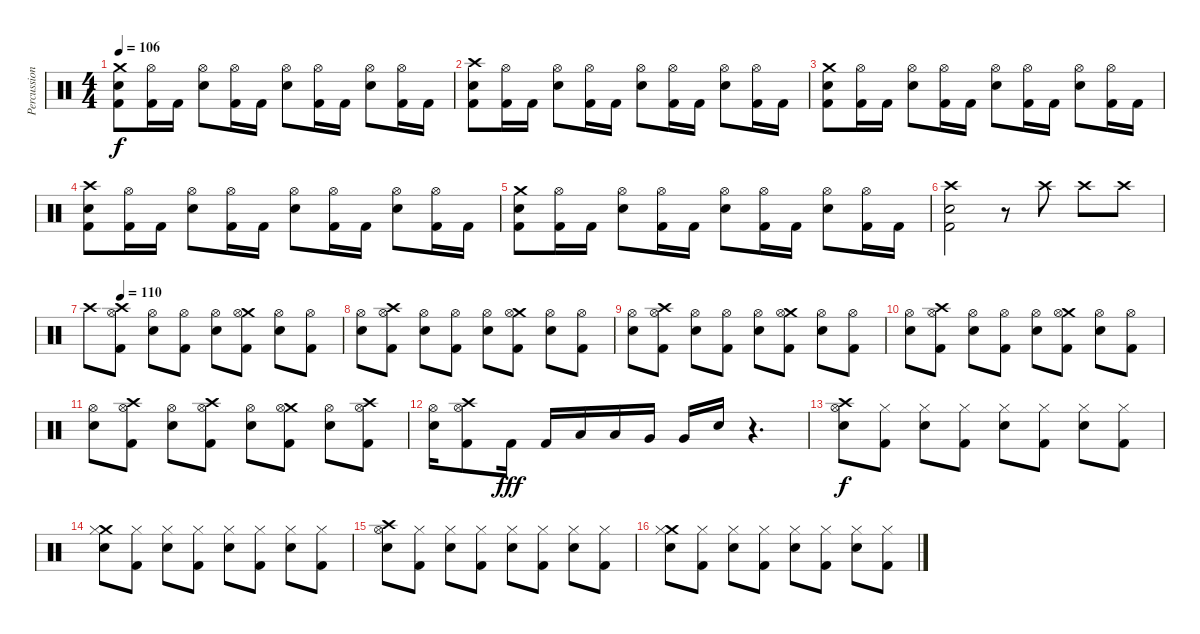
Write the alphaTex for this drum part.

\track ("Percussion" "Percussion") {instrument percussion}
\staff {score}
\articulation defaults
\ts (4 4)
\tempo 106
\clef neutral
\ks c
("Crash medium (hit)" "Electric Snare (hit)" "Kick (hit) 2").8{dy f} ("Hi-Hat (open)" "Kick (hit) 2").16 "Kick (hit) 2".16 ("Hi-Hat (open)" "Electric Snare (hit)").8 ("Hi-Hat (open)" "Kick (hit) 2").16 "Kick (hit) 2".16 ("Hi-Hat (open)" "Electric Snare (hit)").8 ("Hi-Hat (open)" "Kick (hit) 2").16 "Kick (hit) 2".16 ("Hi-Hat (open)" "Electric Snare (hit)").8 ("Hi-Hat (open)" "Kick (hit) 2").16 "Kick (hit) 2".16 |
("Crash high (hit)" "Electric Snare (hit)" "Kick (hit) 2").8 ("Hi-Hat (open)" "Kick (hit) 2").16 "Kick (hit) 2".16 ("Hi-Hat (open)" "Electric Snare (hit)").8 ("Hi-Hat (open)" "Kick (hit) 2").16 "Kick (hit) 2".16 ("Hi-Hat (open)" "Electric Snare (hit)").8 ("Hi-Hat (open)" "Kick (hit) 2").16 "Kick (hit) 2".16 ("Hi-Hat (open)" "Electric Snare (hit)").8 ("Hi-Hat (open)" "Kick (hit) 2").16 "Kick (hit) 2".16 |
("Crash medium (hit)" "Electric Snare (hit)" "Kick (hit) 2").8 ("Hi-Hat (open)" "Kick (hit) 2").16 "Kick (hit) 2".16 ("Hi-Hat (open)" "Electric Snare (hit)").8 ("Hi-Hat (open)" "Kick (hit) 2").16 "Kick (hit) 2".16 ("Hi-Hat (open)" "Electric Snare (hit)").8 ("Hi-Hat (open)" "Kick (hit) 2").16 "Kick (hit) 2".16 ("Hi-Hat (open)" "Electric Snare (hit)").8 ("Hi-Hat (open)" "Kick (hit) 2").16 "Kick (hit) 2".16 |
("Crash high (hit)" "Electric Snare (hit)" "Kick (hit) 2").8 ("Hi-Hat (open)" "Kick (hit) 2").16 "Kick (hit) 2".16 ("Hi-Hat (open)" "Electric Snare (hit)").8 ("Hi-Hat (open)" "Kick (hit) 2").16 "Kick (hit) 2".16 ("Hi-Hat (open)" "Electric Snare (hit)").8 ("Hi-Hat (open)" "Kick (hit) 2").16 "Kick (hit) 2".16 ("Hi-Hat (open)" "Electric Snare (hit)").8 ("Hi-Hat (open)" "Kick (hit) 2").16 "Kick (hit) 2".16 |
("Crash medium (hit)" "Electric Snare (hit)" "Kick (hit) 2").8 ("Hi-Hat (open)" "Kick (hit) 2").16 "Kick (hit) 2".16 ("Hi-Hat (open)" "Electric Snare (hit)").8 ("Hi-Hat (open)" "Kick (hit) 2").16 "Kick (hit) 2".16 ("Hi-Hat (open)" "Electric Snare (hit)").8 ("Hi-Hat (open)" "Kick (hit) 2").16 "Kick (hit) 2".16 ("Hi-Hat (open)" "Electric Snare (hit)").8 ("Hi-Hat (open)" "Kick (hit) 2").16 "Kick (hit) 2".16 |
("Crash high (hit)" "Electric Snare (hit)" "Kick (hit) 2").2 r.8 "Crash high (hit)".8 "Crash high (hit)".8 "Crash high (hit)".8 |
\tempo (110 0.125)
"Crash high (hit)".8 ("Crash high (hit)" "Hi-Hat (open)" "Kick (hit) 2").8 ("Hi-Hat (open)" "Electric Snare (hit)").8 ("Hi-Hat (open)" "Kick (hit) 2").8 ("Hi-Hat (open)" "Electric Snare (hit)").8 ("Crash medium (hit)" "Hi-Hat (open)" "Kick (hit) 2").8 ("Hi-Hat (open)" "Electric Snare (hit)").8 ("Hi-Hat (open)" "Kick (hit) 2").8 |
("Hi-Hat (open)" "Electric Snare (hit)").8 ("Crash high (hit)" "Hi-Hat (open)" "Kick (hit) 2").8 ("Hi-Hat (open)" "Electric Snare (hit)").8 ("Hi-Hat (open)" "Kick (hit) 2").8 ("Hi-Hat (open)" "Electric Snare (hit)").8 ("Crash medium (hit)" "Hi-Hat (open)" "Kick (hit) 2").8 ("Hi-Hat (open)" "Electric Snare (hit)").8 ("Hi-Hat (open)" "Kick (hit) 2").8 |
("Hi-Hat (open)" "Electric Snare (hit)").8 ("Crash high (hit)" "Hi-Hat (open)" "Kick (hit) 2").8 ("Hi-Hat (open)" "Electric Snare (hit)").8 ("Hi-Hat (open)" "Kick (hit) 2").8 ("Hi-Hat (open)" "Electric Snare (hit)").8 ("Crash medium (hit)" "Hi-Hat (open)" "Kick (hit) 2").8 ("Hi-Hat (open)" "Electric Snare (hit)").8 ("Hi-Hat (open)" "Kick (hit) 2").8 |
("Hi-Hat (open)" "Electric Snare (hit)").8 ("Crash high (hit)" "Hi-Hat (open)" "Kick (hit) 2").8 ("Hi-Hat (open)" "Electric Snare (hit)").8 ("Hi-Hat (open)" "Kick (hit) 2").8 ("Hi-Hat (open)" "Electric Snare (hit)").8 ("Crash medium (hit)" "Hi-Hat (open)" "Kick (hit) 2").8 ("Hi-Hat (open)" "Electric Snare (hit)").8 ("Hi-Hat (open)" "Kick (hit) 2").8 |
("Hi-Hat (open)" "Electric Snare (hit)").8 ("Crash high (hit)" "Hi-Hat (open)" "Kick (hit) 2").8 ("Hi-Hat (open)" "Electric Snare (hit)").8 ("Crash high (hit)" "Hi-Hat (open)" "Kick (hit) 2").8 ("Hi-Hat (open)" "Electric Snare (hit)").8 ("Crash medium (hit)" "Hi-Hat (open)" "Kick (hit) 2").8 ("Hi-Hat (open)" "Electric Snare (hit)").8 ("Crash high (hit)" "Hi-Hat (open)" "Kick (hit) 2").8 |
("Hi-Hat (open)" "Electric Snare (hit)").16 ("Crash high (hit)" "Hi-Hat (open)" "Kick (hit) 2").8 "Kick (hit) 2".16{dy fff} "Kick (hit) 2".16 "Low Floor Tom (hit)".16 "Low Floor Tom (hit)".16 "Very Low Tom (hit)".16 "Very Low Tom (hit)".16 "Electric Snare (hit)".16 r.4{d} |
("Crash high (hit)" "Hi-Hat (open)" "Electric Snare (hit)").8{dy f} ("Hi-Hat (closed)" "Kick (hit) 2").8 ("Hi-Hat (closed)" "Electric Snare (hit)").8 ("Hi-Hat (closed)" "Kick (hit) 2").8 ("Hi-Hat (closed)" "Electric Snare (hit)").8 ("Hi-Hat (closed)" "Kick (hit) 2").8 ("Hi-Hat (closed)" "Electric Snare (hit)").8 ("Hi-Hat (closed)" "Kick (hit) 2").8 |
("Crash medium (hit)" "Hi-Hat (closed)" "Electric Snare (hit)").8 ("Hi-Hat (closed)" "Kick (hit) 2").8 ("Hi-Hat (closed)" "Electric Snare (hit)").8 ("Hi-Hat (closed)" "Kick (hit) 2").8 ("Hi-Hat (closed)" "Electric Snare (hit)").8 ("Hi-Hat (closed)" "Kick (hit) 2").8 ("Hi-Hat (closed)" "Electric Snare (hit)").8 ("Hi-Hat (closed)" "Kick (hit) 2").8 |
("Crash high (hit)" "Hi-Hat (open)" "Electric Snare (hit)").8 ("Hi-Hat (closed)" "Kick (hit) 2").8 ("Hi-Hat (closed)" "Electric Snare (hit)").8 ("Hi-Hat (closed)" "Kick (hit) 2").8 ("Hi-Hat (closed)" "Electric Snare (hit)").8 ("Hi-Hat (closed)" "Kick (hit) 2").8 ("Hi-Hat (closed)" "Electric Snare (hit)").8 ("Hi-Hat (closed)" "Kick (hit) 2").8 |
("Crash medium (hit)" "Hi-Hat (closed)" "Electric Snare (hit)").8 ("Hi-Hat (closed)" "Kick (hit) 2").8 ("Hi-Hat (closed)" "Electric Snare (hit)").8 ("Hi-Hat (closed)" "Kick (hit) 2").8 ("Hi-Hat (closed)" "Electric Snare (hit)").8 ("Hi-Hat (closed)" "Kick (hit) 2").8 ("Hi-Hat (closed)" "Electric Snare (hit)").8 ("Hi-Hat (closed)" "Kick (hit) 2").8
